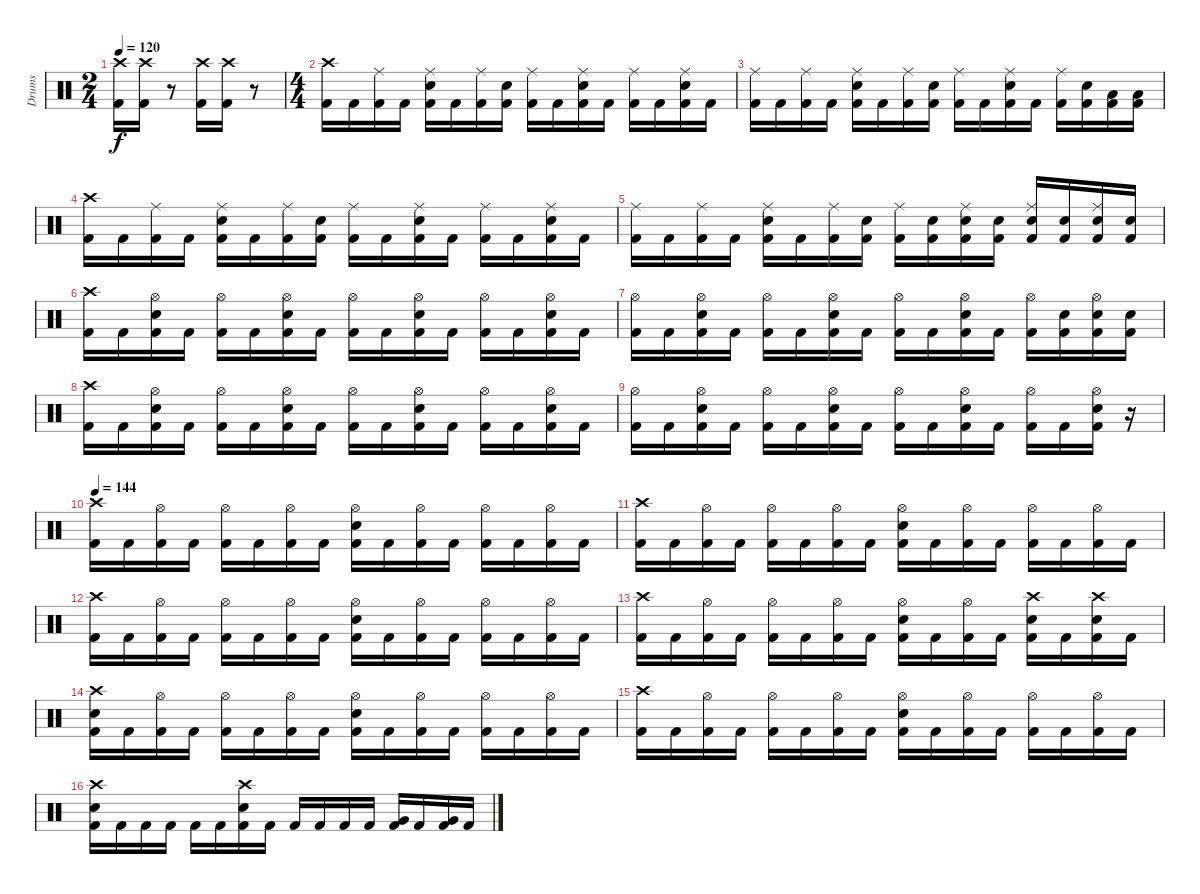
\track ("Drums" "Drums") {instrument percussion}
\staff {score}
\articulation defaults
\ts (2 4)
\tempo 120
\clef neutral
\ks c
("Crash high (hit)" "Kick (hit) 2").16{dy f} ("Crash high (hit)" "Kick (hit) 2").16 r.8 ("Crash high (hit)" "Kick (hit) 2").16 ("Crash high (hit)" "Kick (hit) 2").16 r.8 |
\ts (4 4)
("Crash high (hit)" "Kick (hit) 2").16 "Kick (hit) 2".16 ("Ride (middle)" "Kick (hit) 2").16 "Kick (hit) 2".16 ("Ride (middle)" "Snare (hit) 2" "Kick (hit) 2").16 "Kick (hit) 2".16 ("Ride (middle)" "Kick (hit) 2").16 ("Snare (hit) 2" "Kick (hit) 2").16 ("Ride (middle)" "Kick (hit) 2").16 "Kick (hit) 2".16 ("Ride (middle)" "Snare (hit) 2" "Kick (hit) 2").16 "Kick (hit) 2".16 ("Ride (middle)" "Kick (hit) 2").16 "Kick (hit) 2".16 ("Ride (middle)" "Snare (hit) 2" "Kick (hit) 2").16 "Kick (hit) 2".16 |
("Ride (middle)" "Kick (hit) 2").16 "Kick (hit) 2".16 ("Ride (middle)" "Kick (hit) 2").16 "Kick (hit) 2".16 ("Ride (middle)" "Snare (hit) 2" "Kick (hit) 2").16 "Kick (hit) 2".16 ("Ride (middle)" "Kick (hit) 2").16 ("Snare (hit) 2" "Kick (hit) 2").16 ("Ride (middle)" "Kick (hit) 2").16 "Kick (hit) 2".16 ("Ride (middle)" "Snare (hit) 2" "Kick (hit) 2").16 "Kick (hit) 2".16 ("Ride (middle)" "Kick (hit) 2").16 ("Snare (hit) 2" "Kick (hit) 2").16 ("Low Floor Tom (hit)" "Kick (hit) 2").16 ("Low Floor Tom (hit)" "Kick (hit) 2").16 |
("Crash high (hit)" "Kick (hit) 2").16 "Kick (hit) 2".16 ("Ride (middle)" "Kick (hit) 2").16 "Kick (hit) 2".16 ("Ride (middle)" "Snare (hit) 2" "Kick (hit) 2").16 "Kick (hit) 2".16 ("Ride (middle)" "Kick (hit) 2").16 ("Snare (hit) 2" "Kick (hit) 2").16 ("Ride (middle)" "Kick (hit) 2").16 "Kick (hit) 2".16 ("Ride (middle)" "Snare (hit) 2" "Kick (hit) 2").16 "Kick (hit) 2".16 ("Ride (middle)" "Kick (hit) 2").16 "Kick (hit) 2".16 ("Ride (middle)" "Snare (hit) 2" "Kick (hit) 2").16 "Kick (hit) 2".16 |
("Ride (middle)" "Kick (hit) 2").16 "Kick (hit) 2".16 ("Ride (middle)" "Kick (hit) 2").16 "Kick (hit) 2".16 ("Ride (middle)" "Snare (hit) 2" "Kick (hit) 2").16 "Kick (hit) 2".16 ("Ride (middle)" "Kick (hit) 2").16 ("Snare (hit) 2" "Kick (hit) 2").16 ("Ride (middle)" "Kick (hit) 2").16 ("Snare (hit) 2" "Kick (hit) 2").16 ("Ride (middle)" "Snare (hit) 2" "Kick (hit) 2").16 ("Snare (hit) 2" "Kick (hit) 2").16 ("Ride (middle)" "Snare (hit) 2" "Kick (hit) 2").16 ("Snare (hit) 2" "Kick (hit) 2").16 ("Ride (middle)" "Snare (hit) 2" "Kick (hit) 2").16 ("Snare (hit) 2" "Kick (hit) 2").16 |
("Crash high (hit)" "Kick (hit) 2").16 "Kick (hit) 2".16 ("Hi-Hat (open)" "Snare (hit) 2" "Kick (hit) 2").16 "Kick (hit) 2".16 ("Hi-Hat (open)" "Kick (hit) 2").16 "Kick (hit) 2".16 ("Hi-Hat (open)" "Snare (hit) 2" "Kick (hit) 2").16 "Kick (hit) 2".16 ("Hi-Hat (open)" "Kick (hit) 2").16 "Kick (hit) 2".16 ("Hi-Hat (open)" "Snare (hit) 2" "Kick (hit) 2").16 "Kick (hit) 2".16 ("Hi-Hat (open)" "Kick (hit) 2").16 "Kick (hit) 2".16 ("Hi-Hat (open)" "Snare (hit) 2" "Kick (hit) 2").16 "Kick (hit) 2".16 |
("Hi-Hat (open)" "Kick (hit) 2").16 "Kick (hit) 2".16 ("Hi-Hat (open)" "Snare (hit) 2" "Kick (hit) 2").16 "Kick (hit) 2".16 ("Hi-Hat (open)" "Kick (hit) 2").16 "Kick (hit) 2".16 ("Hi-Hat (open)" "Snare (hit) 2" "Kick (hit) 2").16 "Kick (hit) 2".16 ("Hi-Hat (open)" "Kick (hit) 2").16 "Kick (hit) 2".16 ("Hi-Hat (open)" "Snare (hit) 2" "Kick (hit) 2").16 "Kick (hit) 2".16 ("Hi-Hat (open)" "Kick (hit) 2").16 ("Snare (hit) 2" "Kick (hit) 2").16 ("Hi-Hat (open)" "Snare (hit) 2" "Kick (hit) 2").16 ("Snare (hit) 2" "Kick (hit) 2").16 |
("Crash high (hit)" "Kick (hit) 2").16 "Kick (hit) 2".16 ("Hi-Hat (open)" "Snare (hit) 2" "Kick (hit) 2").16 "Kick (hit) 2".16 ("Hi-Hat (open)" "Kick (hit) 2").16 "Kick (hit) 2".16 ("Hi-Hat (open)" "Snare (hit) 2" "Kick (hit) 2").16 "Kick (hit) 2".16 ("Hi-Hat (open)" "Kick (hit) 2").16 "Kick (hit) 2".16 ("Hi-Hat (open)" "Snare (hit) 2" "Kick (hit) 2").16 "Kick (hit) 2".16 ("Hi-Hat (open)" "Kick (hit) 2").16 "Kick (hit) 2".16 ("Hi-Hat (open)" "Snare (hit) 2" "Kick (hit) 2").16 "Kick (hit) 2".16 |
("Hi-Hat (open)" "Kick (hit) 2").16 "Kick (hit) 2".16 ("Hi-Hat (open)" "Snare (hit) 2" "Kick (hit) 2").16 "Kick (hit) 2".16 ("Hi-Hat (open)" "Kick (hit) 2").16 "Kick (hit) 2".16 ("Hi-Hat (open)" "Snare (hit) 2" "Kick (hit) 2").16 "Kick (hit) 2".16 ("Hi-Hat (open)" "Kick (hit) 2").16 "Kick (hit) 2".16 ("Hi-Hat (open)" "Snare (hit) 2" "Kick (hit) 2").16 "Kick (hit) 2".16 ("Hi-Hat (open)" "Kick (hit) 2").16 "Kick (hit) 2".16 ("Hi-Hat (open)" "Snare (hit) 2" "Kick (hit) 2").16 r.16 |
\tempo 144
("Crash high (hit)" "Kick (hit) 2").16 "Kick (hit) 2".16 ("Hi-Hat (open)" "Kick (hit) 2").16 "Kick (hit) 2".16 ("Hi-Hat (open)" "Kick (hit) 2").16 "Kick (hit) 2".16 ("Hi-Hat (open)" "Kick (hit) 2").16 "Kick (hit) 2".16 ("Hi-Hat (open)" "Snare (hit) 2" "Kick (hit) 2").16 "Kick (hit) 2".16 ("Hi-Hat (open)" "Kick (hit) 2").16 "Kick (hit) 2".16 ("Hi-Hat (open)" "Kick (hit) 2").16 "Kick (hit) 2".16 ("Hi-Hat (open)" "Kick (hit) 2").16 "Kick (hit) 2".16 |
("Crash high (hit)" "Kick (hit) 2").16 "Kick (hit) 2".16 ("Hi-Hat (open)" "Kick (hit) 2").16 "Kick (hit) 2".16 ("Hi-Hat (open)" "Kick (hit) 2").16 "Kick (hit) 2".16 ("Hi-Hat (open)" "Kick (hit) 2").16 "Kick (hit) 2".16 ("Hi-Hat (open)" "Snare (hit) 2" "Kick (hit) 2").16 "Kick (hit) 2".16 ("Hi-Hat (open)" "Kick (hit) 2").16 "Kick (hit) 2".16 ("Hi-Hat (open)" "Kick (hit) 2").16 "Kick (hit) 2".16 ("Hi-Hat (open)" "Kick (hit) 2").16 "Kick (hit) 2".16 |
("Crash high (hit)" "Kick (hit) 2").16 "Kick (hit) 2".16 ("Hi-Hat (open)" "Kick (hit) 2").16 "Kick (hit) 2".16 ("Hi-Hat (open)" "Kick (hit) 2").16 "Kick (hit) 2".16 ("Hi-Hat (open)" "Kick (hit) 2").16 "Kick (hit) 2".16 ("Hi-Hat (open)" "Snare (hit) 2" "Kick (hit) 2").16 "Kick (hit) 2".16 ("Hi-Hat (open)" "Kick (hit) 2").16 "Kick (hit) 2".16 ("Hi-Hat (open)" "Kick (hit) 2").16 "Kick (hit) 2".16 ("Hi-Hat (open)" "Kick (hit) 2").16 "Kick (hit) 2".16 |
("Crash high (hit)" "Kick (hit) 2").16 "Kick (hit) 2".16 ("Hi-Hat (open)" "Kick (hit) 2").16 "Kick (hit) 2".16 ("Hi-Hat (open)" "Kick (hit) 2").16 "Kick (hit) 2".16 ("Hi-Hat (open)" "Kick (hit) 2").16 "Kick (hit) 2".16 ("Hi-Hat (open)" "Snare (hit) 2" "Kick (hit) 2").16 "Kick (hit) 2".16 ("Hi-Hat (open)" "Kick (hit) 2").16 "Kick (hit) 2".16 ("Crash high (hit)" "Snare (hit) 2" "Kick (hit) 2").16 "Kick (hit) 2".16 ("Crash high (hit)" "Snare (hit) 2" "Kick (hit) 2").16 "Kick (hit) 2".16 |
("Crash high (hit)" "Snare (hit) 2" "Kick (hit) 2").16 "Kick (hit) 2".16 ("Hi-Hat (open)" "Kick (hit) 2").16 "Kick (hit) 2".16 ("Hi-Hat (open)" "Kick (hit) 2").16 "Kick (hit) 2".16 ("Hi-Hat (open)" "Kick (hit) 2").16 "Kick (hit) 2".16 ("Hi-Hat (open)" "Snare (hit) 2" "Kick (hit) 2").16 "Kick (hit) 2".16 ("Hi-Hat (open)" "Kick (hit) 2").16 "Kick (hit) 2".16 ("Hi-Hat (open)" "Kick (hit) 2").16 "Kick (hit) 2".16 ("Hi-Hat (open)" "Kick (hit) 2").16 "Kick (hit) 2".16 |
("Crash high (hit)" "Kick (hit) 2").16 "Kick (hit) 2".16 ("Hi-Hat (open)" "Kick (hit) 2").16 "Kick (hit) 2".16 ("Hi-Hat (open)" "Kick (hit) 2").16 "Kick (hit) 2".16 ("Hi-Hat (open)" "Kick (hit) 2").16 "Kick (hit) 2".16 ("Hi-Hat (open)" "Snare (hit) 2" "Kick (hit) 2").16 "Kick (hit) 2".16 ("Hi-Hat (open)" "Kick (hit) 2").16 "Kick (hit) 2".16 ("Hi-Hat (open)" "Kick (hit) 2").16 "Kick (hit) 2".16 ("Hi-Hat (open)" "Kick (hit) 2").16 "Kick (hit) 2".16 |
("Crash high (hit)" "Snare (hit) 2" "Kick (hit) 2").16 "Kick (hit) 2".16 "Kick (hit) 2".16 "Kick (hit) 2".16 "Kick (hit) 2".16 "Kick (hit) 2".16 ("Crash high (hit)" "Snare (hit) 2" "Kick (hit) 2").16 "Kick (hit) 2".16 "Kick (hit) 2".16 "Kick (hit) 2".16 "Kick (hit) 2".16 "Kick (hit) 2".16 ("Very Low Tom (hit)" "Kick (hit) 2").16 "Kick (hit) 2".16 ("Very Low Tom (hit)" "Kick (hit) 2").16 "Kick (hit) 2".16
